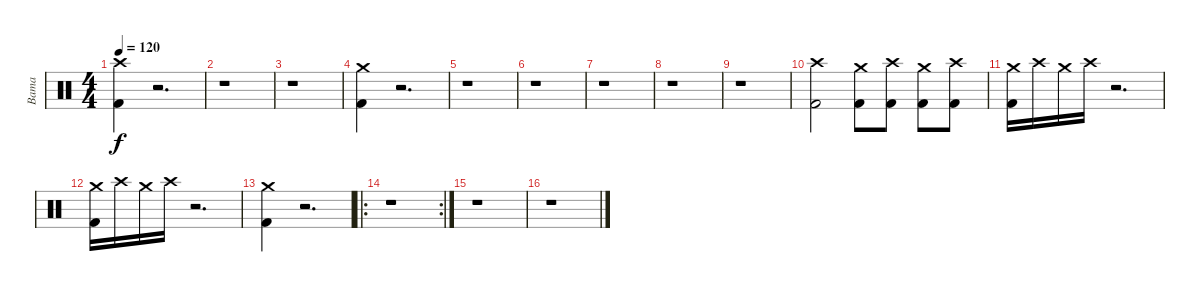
\track ("Bama" "Bama") {instrument percussion}
\staff {score}
\articulation defaults
\ts (4 4)
\tempo 120
\clef neutral
\ks c
("Crash high (hit)" "Kick (hit) 2").4{dy f} r.2{d} |
r.1 |
r.1 |
("Crash medium (hit)" "Kick (hit) 2").4 r.2{d} |
r.1 |
r.1 |
r.1 |
r.1 |
r.1 |
("Crash high (hit)" "Kick (hit) 2").2 ("Crash medium (hit)" "Kick (hit) 2").8 ("Crash high (hit)" "Kick (hit) 2").8 ("Crash medium (hit)" "Kick (hit) 2").8 ("Crash high (hit)" "Kick (hit) 2").8 |
("Crash medium (hit)" "Kick (hit) 2").16 "Crash high (hit)".16 "Crash medium (hit)".16 "Crash high (hit)".16 r.2{d} |
("Crash medium (hit)" "Kick (hit) 2").16 "Crash high (hit)".16 "Crash medium (hit)".16 "Crash high (hit)".16 r.2{d} |
("Crash medium (hit)" "Kick (hit) 2").4 r.2{d} |
\ro
\rc 2
r.1 |
r.1 |
r.1
